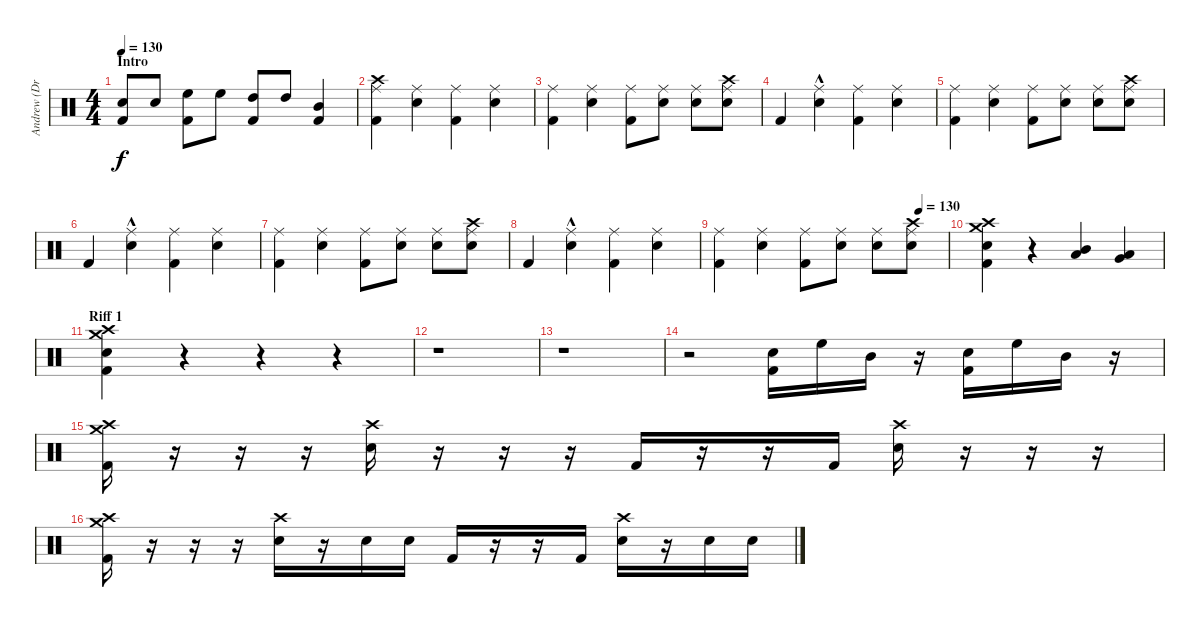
\track ("Andrew (Drums)" "Andrew (Dr") {instrument percussion}
\staff {score}
\articulation defaults
\ts (4 4)
\section ("" "Intro")
\tempo 130
\tempo 190
\tempo 130
\clef neutral
\ks c
("Snare (hit) 2" "Kick (hit) 2").8{dy f} "Snare (hit) 2".8 ("High Floor Tom (hit)" "Kick (hit) 2").8 "High Floor Tom (hit)".8 ("High Tom (hit)" "Kick (hit) 2").8 "High Tom (hit)".8 ("Mid Tom (hit)" "Kick (hit) 2").4 |
("Crash high (hit)" "Ride (middle)" "Kick (hit) 2").4 ("Ride (middle)" "Snare (hit) 2").4 ("Ride (middle)" "Kick (hit) 2").4 ("Ride (middle)" "Snare (hit) 2").4 |
("Ride (middle)" "Kick (hit) 2").4 ("Ride (middle)" "Snare (hit) 2").4 ("Ride (middle)" "Kick (hit) 2").8 ("Ride (middle)" "Snare (hit) 2").8 ("Ride (middle)" "Snare (hit) 2").8 ("Crash high (hit)" "Ride (middle)" "Snare (hit) 2").8 |
"Kick (hit) 2".4 ("Ride (middle)"{hac} "Snare (hit) 2").4 ("Ride (middle)" "Kick (hit) 2").4 ("Ride (middle)" "Snare (hit) 2").4 |
("Ride (middle)" "Kick (hit) 2").4 ("Ride (middle)" "Snare (hit) 2").4 ("Ride (middle)" "Kick (hit) 2").8 ("Ride (middle)" "Snare (hit) 2").8 ("Ride (middle)" "Snare (hit) 2").8 ("Crash high (hit)" "Ride (middle)" "Snare (hit) 2").8 |
"Kick (hit) 2".4 ("Ride (middle)"{hac} "Snare (hit) 2").4 ("Ride (middle)" "Kick (hit) 2").4 ("Ride (middle)" "Snare (hit) 2").4 |
("Ride (middle)" "Kick (hit) 2").4 ("Ride (middle)" "Snare (hit) 2").4 ("Ride (middle)" "Kick (hit) 2").8 ("Ride (middle)" "Snare (hit) 2").8 ("Ride (middle)" "Snare (hit) 2").8 ("Crash high (hit)" "Ride (middle)" "Snare (hit) 2").8 |
"Kick (hit) 2".4 ("Ride (middle)"{hac} "Snare (hit) 2").4 ("Ride (middle)" "Kick (hit) 2").4 ("Ride (middle)" "Snare (hit) 2").4 |
\tempo (130 0.875)
("Ride (middle)" "Kick (hit) 2").4 ("Ride (middle)" "Snare (hit) 2").4 ("Ride (middle)" "Kick (hit) 2").8 ("Ride (middle)" "Snare (hit) 2").8 ("Ride (middle)" "Snare (hit) 2").8 ("Crash high (hit)" "Ride (middle)" "Snare (hit) 2").8 |
("Crash medium (hit)" "Crash high (hit)" "Snare (hit) 2" "Kick (hit) 2").4 r.4 ("Low Tom (hit)" "Mid Tom (hit)").4 ("Very Low Tom (hit)" "Low Tom (hit)").4 |
\section ("" "Riff 1")
("Crash medium (hit)" "Crash high (hit)" "Snare (hit) 2" "Kick (hit) 2").4 r.4 r.4 r.4 |
r.1 |
r.1 |
r.2 ("Kick (hit) 2" "Snare (hit) 2").16 "High Floor Tom (hit)".16 "Mid Tom (hit)".16 r.16 ("Kick (hit) 2" "Snare (hit) 2").16 "High Floor Tom (hit)".16 "Mid Tom (hit)".16 r.16 |
("Crash medium (hit)" "Crash high (hit)" "Kick (hit) 2").16 r.16 r.16 r.16 ("Crash high (hit)" "Snare (hit) 2").16 r.16 r.16 r.16 "Kick (hit) 2".16 r.16 r.16 "Kick (hit) 2".16 ("Crash high (hit)" "Snare (hit) 2").16 r.16 r.16 r.16 |
("Crash medium (hit)" "Crash high (hit)" "Kick (hit) 2").16 r.16 r.16 r.16 ("Crash high (hit)" "Snare (hit) 2").16 r.16 "Snare (hit) 2".16 "Snare (hit) 2".16 "Kick (hit) 2".16 r.16 r.16 "Kick (hit) 2".16 ("Crash high (hit)" "Snare (hit) 2").16 r.16 "Snare (hit) 2".16 "Snare (hit) 2".16
